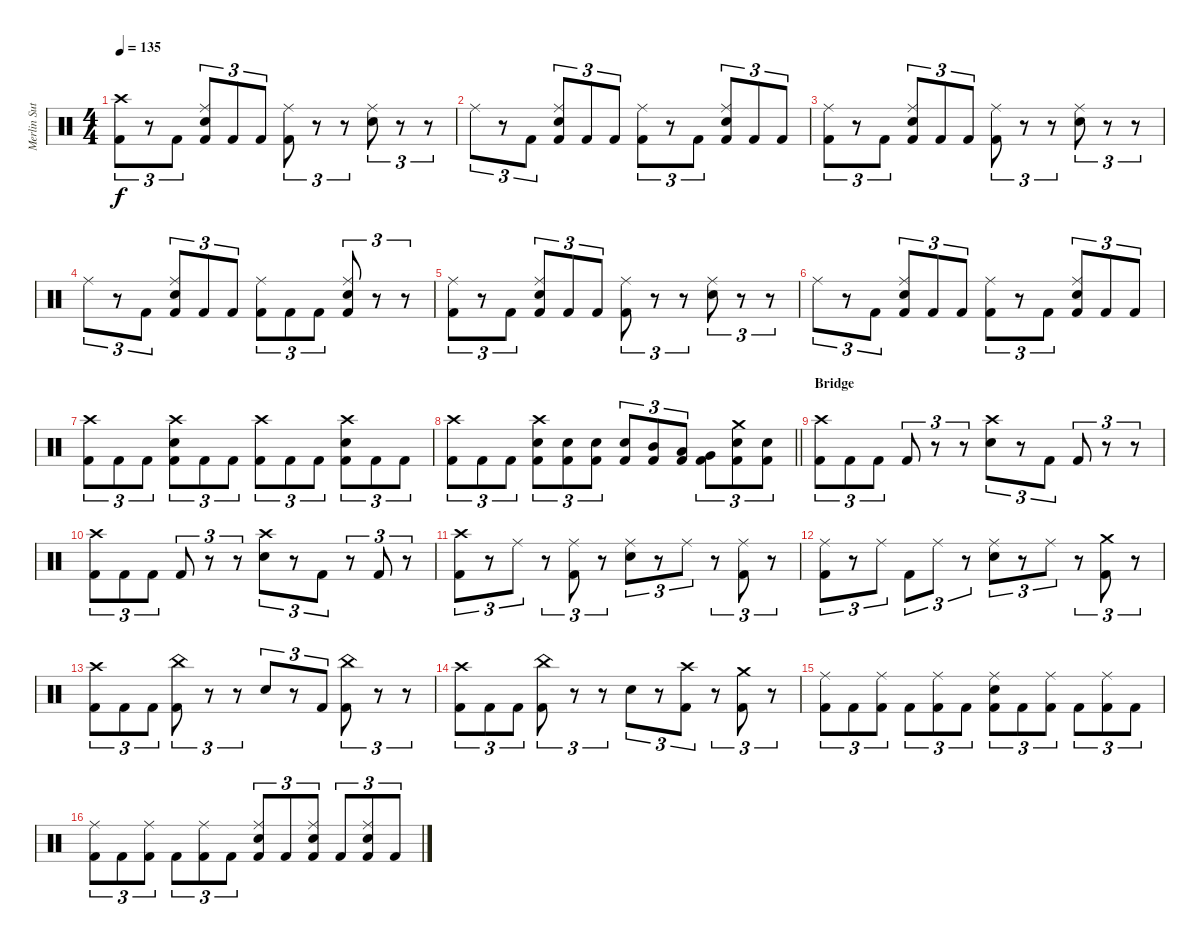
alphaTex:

\track ("Merlin Sutter" "Merlin Sut") {instrument percussion}
\staff {score}
\articulation defaults
\ts (4 4)
\tempo 135
\clef neutral
\ks c
("Crash high (hit)" "Kick (hit) 2").8{tu (3 2) dy f} r.8{tu (3 2)} "Kick (hit) 2".8{tu (3 2)} ("Ride (middle)" "Snare (hit) 2" "Kick (hit) 2").8{tu (3 2)} "Kick (hit) 2".8{tu (3 2)} "Kick (hit) 2".8{tu (3 2)} ("Ride (middle)" "Kick (hit) 2").8{tu (3 2)} r.8{tu (3 2)} r.8{tu (3 2)} ("Ride (middle)" "Snare (hit) 2").8{tu (3 2)} r.8{tu (3 2)} r.8{tu (3 2)} |
"Ride (middle)".8{tu (3 2)} r.8{tu (3 2)} "Kick (hit) 2".8{tu (3 2)} ("Ride (middle)" "Snare (hit) 2" "Kick (hit) 2").8{tu (3 2)} "Kick (hit) 2".8{tu (3 2)} "Kick (hit) 2".8{tu (3 2)} ("Ride (middle)" "Kick (hit) 2").8{tu (3 2)} r.8{tu (3 2)} "Kick (hit) 2".8{tu (3 2)} ("Ride (middle)" "Snare (hit) 2" "Kick (hit) 2").8{tu (3 2)} "Kick (hit) 2".8{tu (3 2)} "Kick (hit) 2".8{tu (3 2)} |
("Ride (middle)" "Kick (hit) 2").8{tu (3 2)} r.8{tu (3 2)} "Kick (hit) 2".8{tu (3 2)} ("Ride (middle)" "Snare (hit) 2" "Kick (hit) 2").8{tu (3 2)} "Kick (hit) 2".8{tu (3 2)} "Kick (hit) 2".8{tu (3 2)} ("Ride (middle)" "Kick (hit) 2").8{tu (3 2)} r.8{tu (3 2)} r.8{tu (3 2)} ("Ride (middle)" "Snare (hit) 2").8{tu (3 2)} r.8{tu (3 2)} r.8{tu (3 2)} |
"Ride (middle)".8{tu (3 2)} r.8{tu (3 2)} "Kick (hit) 2".8{tu (3 2)} ("Ride (middle)" "Snare (hit) 2" "Kick (hit) 2").8{tu (3 2)} "Kick (hit) 2".8{tu (3 2)} "Kick (hit) 2".8{tu (3 2)} ("Ride (middle)" "Kick (hit) 2").8{tu (3 2)} "Kick (hit) 2".8{tu (3 2)} "Kick (hit) 2".8{tu (3 2)} ("Ride (middle)" "Snare (hit) 2" "Kick (hit) 2").8{tu (3 2)} r.8{tu (3 2)} r.8{tu (3 2)} |
("Ride (middle)" "Kick (hit) 2").8{tu (3 2)} r.8{tu (3 2)} "Kick (hit) 2".8{tu (3 2)} ("Ride (middle)" "Snare (hit) 2" "Kick (hit) 2").8{tu (3 2)} "Kick (hit) 2".8{tu (3 2)} "Kick (hit) 2".8{tu (3 2)} ("Ride (middle)" "Kick (hit) 2").8{tu (3 2)} r.8{tu (3 2)} r.8{tu (3 2)} ("Ride (middle)" "Snare (hit) 2").8{tu (3 2)} r.8{tu (3 2)} r.8{tu (3 2)} |
"Ride (middle)".8{tu (3 2)} r.8{tu (3 2)} "Kick (hit) 2".8{tu (3 2)} ("Ride (middle)" "Snare (hit) 2" "Kick (hit) 2").8{tu (3 2)} "Kick (hit) 2".8{tu (3 2)} "Kick (hit) 2".8{tu (3 2)} ("Ride (middle)" "Kick (hit) 2").8{tu (3 2)} r.8{tu (3 2)} "Kick (hit) 2".8{tu (3 2)} ("Ride (middle)" "Snare (hit) 2" "Kick (hit) 2").8{tu (3 2)} "Kick (hit) 2".8{tu (3 2)} "Kick (hit) 2".8{tu (3 2)} |
("Crash high (hit)" "Kick (hit) 2").8{tu (3 2)} "Kick (hit) 2".8{tu (3 2)} "Kick (hit) 2".8{tu (3 2)} ("Crash high (hit)" "Snare (hit) 2" "Kick (hit) 2").8{tu (3 2)} "Kick (hit) 2".8{tu (3 2)} "Kick (hit) 2".8{tu (3 2)} ("Crash high (hit)" "Kick (hit) 2").8{tu (3 2)} "Kick (hit) 2".8{tu (3 2)} "Kick (hit) 2".8{tu (3 2)} ("Crash high (hit)" "Snare (hit) 2" "Kick (hit) 2").8{tu (3 2)} "Kick (hit) 2".8{tu (3 2)} "Kick (hit) 2".8{tu (3 2)} |
\barLineRight lightlight
("Crash high (hit)" "Kick (hit) 2").8{tu (3 2)} "Kick (hit) 2".8{tu (3 2)} "Kick (hit) 2".8{tu (3 2)} ("Crash high (hit)" "Snare (hit) 2" "Kick (hit) 2").8{tu (3 2)} ("Snare (hit) 2" "Kick (hit) 2").8{tu (3 2)} ("Snare (hit) 2" "Kick (hit) 2").8{tu (3 2)} ("Snare (hit) 2" "Kick (hit) 2").8{tu (3 2)} ("Mid Tom (hit)" "Kick (hit) 2").8{tu (3 2)} ("Low Tom (hit)" "Kick (hit) 2").8{tu (3 2)} ("Very Low Tom (hit)" "Kick (hit) 2").8{tu (3 2)} ("Crash medium (hit)" "Snare (hit) 2" "Kick (hit) 2").8{tu (3 2)} ("Snare (hit) 2" "Kick (hit) 2").8{tu (3 2)} |
\section ("" "Bridge")
("Crash high (hit)" "Kick (hit) 2").8{tu (3 2)} "Kick (hit) 2".8{tu (3 2)} "Kick (hit) 2".8{tu (3 2)} "Kick (hit) 2".8{tu (3 2)} r.8{tu (3 2)} r.8{tu (3 2)} ("Crash high (hit)" "Snare (hit) 2").8{tu (3 2)} r.8{tu (3 2)} "Kick (hit) 2".8{tu (3 2)} "Kick (hit) 2".8{tu (3 2)} r.8{tu (3 2)} r.8{tu (3 2)} |
("Crash high (hit)" "Kick (hit) 2").8{tu (3 2)} "Kick (hit) 2".8{tu (3 2)} "Kick (hit) 2".8{tu (3 2)} "Kick (hit) 2".8{tu (3 2)} r.8{tu (3 2)} r.8{tu (3 2)} ("Crash high (hit)" "Snare (hit) 2").8{tu (3 2)} r.8{tu (3 2)} "Kick (hit) 2".8{tu (3 2)} r.8{tu (3 2)} "Kick (hit) 2".8{tu (3 2)} r.8{tu (3 2)} |
("Crash high (hit)" "Kick (hit) 2").8{tu (3 2)} r.8{tu (3 2)} "Ride (middle)".8{tu (3 2)} r.8{tu (3 2)} ("Ride (middle)" "Kick (hit) 2").8{tu (3 2)} r.8{tu (3 2)} ("Ride (middle)" "Snare (hit) 2").8{tu (3 2)} r.8{tu (3 2)} "Ride (middle)".8{tu (3 2)} r.8{tu (3 2)} ("Ride (middle)" "Kick (hit) 2").8{tu (3 2)} r.8{tu (3 2)} |
("Ride (middle)" "Kick (hit) 2").8{tu (3 2)} r.8{tu (3 2)} "Ride (middle)".8{tu (3 2)} "Kick (hit) 2".8{tu (3 2)} "Ride (middle)".8{tu (3 2)} r.8{tu (3 2)} ("Ride (middle)" "Snare (hit) 2").8{tu (3 2)} r.8{tu (3 2)} "Ride (middle)".8{tu (3 2)} r.8{tu (3 2)} ("Crash medium (hit)" "Kick (hit) 2").8{tu (3 2)} r.8{tu (3 2)} |
("Crash high (hit)" "Kick (hit) 2").8{tu (3 2)} "Kick (hit) 2".8{tu (3 2)} "Kick (hit) 2".8{tu (3 2)} ("China (hit)" "Kick (hit) 2").8{tu (3 2)} r.8{tu (3 2)} r.8{tu (3 2)} "Snare (hit) 2".8{tu (3 2)} r.8{tu (3 2)} "Kick (hit) 2".8{tu (3 2)} ("China (hit)" "Kick (hit) 2").8{tu (3 2)} r.8{tu (3 2)} r.8{tu (3 2)} |
("Crash high (hit)" "Kick (hit) 2").8{tu (3 2)} "Kick (hit) 2".8{tu (3 2)} "Kick (hit) 2".8{tu (3 2)} ("China (hit)" "Kick (hit) 2").8{tu (3 2)} r.8{tu (3 2)} r.8{tu (3 2)} "Snare (hit) 2".8{tu (3 2)} r.8{tu (3 2)} ("Crash high (hit)" "Kick (hit) 2").8{tu (3 2)} r.8{tu (3 2)} ("Crash medium (hit)" "Kick (hit) 2").8{tu (3 2)} r.8{tu (3 2)} |
("Ride (middle)" "Kick (hit) 2").8{tu (3 2)} "Kick (hit) 2".8{tu (3 2)} ("Ride (middle)" "Kick (hit) 2").8{tu (3 2)} "Kick (hit) 2".8{tu (3 2)} ("Ride (middle)" "Kick (hit) 2").8{tu (3 2)} "Kick (hit) 2".8{tu (3 2)} ("Ride (middle)" "Snare (hit) 2" "Kick (hit) 2").8{tu (3 2)} "Kick (hit) 2".8{tu (3 2)} ("Ride (middle)" "Kick (hit) 2").8{tu (3 2)} "Kick (hit) 2".8{tu (3 2)} ("Ride (middle)" "Kick (hit) 2").8{tu (3 2)} "Kick (hit) 2".8{tu (3 2)} |
("Ride (middle)" "Kick (hit) 2").8{tu (3 2)} "Kick (hit) 2".8{tu (3 2)} ("Ride (middle)" "Kick (hit) 2").8{tu (3 2)} "Kick (hit) 2".8{tu (3 2)} ("Ride (middle)" "Kick (hit) 2").8{tu (3 2)} "Kick (hit) 2".8{tu (3 2)} ("Ride (middle)" "Snare (hit) 2" "Kick (hit) 2").8{tu (3 2)} "Kick (hit) 2".8{tu (3 2)} ("Ride (middle)" "Snare (hit) 2" "Kick (hit) 2").8{tu (3 2)} "Kick (hit) 2".8{tu (3 2)} ("Ride (middle)" "Snare (hit) 2" "Kick (hit) 2").8{tu (3 2)} "Kick (hit) 2".8{tu (3 2)}
